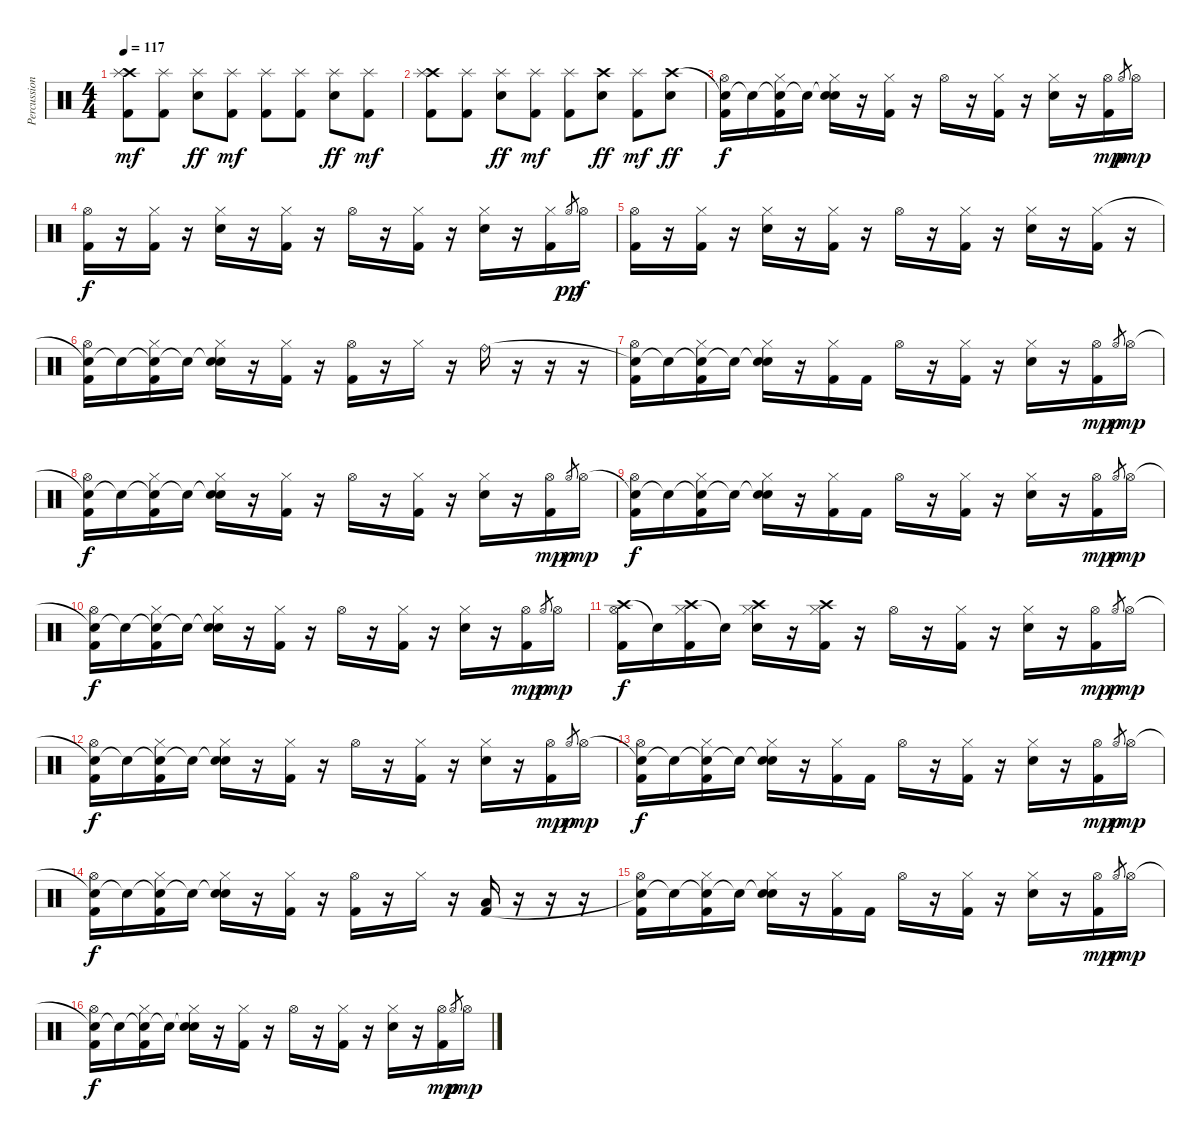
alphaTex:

\track ("Percussion" "Percussion") {instrument percussion}
\staff {score}
\articulation defaults
\ts (4 4)
\tempo 117
\clef neutral
\ks c
("Crash high (hit)" "Splash (hit)" "Kick (hit) 2").8{dy mf} ("Splash (hit)" "Kick (hit) 2").8 ("Splash (hit)" "Electric Snare (hit)").8{dy ff} ("Splash (hit)" "Kick (hit) 2").8{dy mf} ("Splash (hit)" "Kick (hit) 2").8 ("Splash (hit)" "Kick (hit) 2").8 ("Splash (hit)" "Electric Snare (hit)").8{dy ff} ("Splash (hit)" "Kick (hit) 2").8{dy mf} |
("Crash high (hit)" "Splash (hit)" "Kick (hit) 2").8 ("Splash (hit)" "Kick (hit) 2").8 ("Splash (hit)" "Electric Snare (hit)").8{dy ff} ("Splash (hit)" "Kick (hit) 2").8{dy mf} ("Splash (hit)" "Kick (hit) 2").8 ("Crash high (hit)" "Electric Snare (hit)").8{dy ff} ("Splash (hit)" "Kick (hit) 2").8{dy mf} ("Crash high (hit)" "Electric Snare (hit)").8{dy ff} |
("Snare (hit)"{t} "Hi-Hat (open)" "Kick (hit) 2").16{dy f} "Snare (hit)"{t}.16 ("Snare (hit)"{t} "Hi-Hat (closed)" "Kick (hit) 2").16 "Snare (hit)"{t}.16 ("Snare (hit)"{t} "Hi-Hat (closed)" "Electric Snare (hit)").16 r.16 ("Hi-Hat (closed)" "Kick (hit) 2").16 r.16 "Hi-Hat (open)".16 r.16 ("Hi-Hat (closed)" "Kick (hit) 2").16 r.16 ("Hi-Hat (closed)" "Electric Snare (hit)").16 r.16 ("Hi-Hat (open)" "Kick (hit) 2").16{dy mp} "Hi-Hat (open)".8{gr dy p} "Hi-Hat (open)".16{dy mp} |
("Hi-Hat (open)" "Kick (hit) 2").16{dy f} r.16 ("Hi-Hat (closed)" "Kick (hit) 2").16 r.16 ("Hi-Hat (closed)" "Electric Snare (hit)").16 r.16 ("Hi-Hat (closed)" "Kick (hit) 2").16 r.16 "Hi-Hat (open)".16 r.16 ("Hi-Hat (closed)" "Kick (hit) 2").16 r.16 ("Hi-Hat (closed)" "Electric Snare (hit)").16 r.16 ("Hi-Hat (closed)" "Kick (hit) 2").16 "Hi-Hat (open)".8{gr dy pp} "Hi-Hat (open)".16{dy f} |
("Hi-Hat (open)" "Kick (hit) 2").16 r.16 ("Hi-Hat (closed)" "Kick (hit) 2").16 r.16 ("Hi-Hat (closed)" "Electric Snare (hit)").16 r.16 ("Hi-Hat (closed)" "Kick (hit) 2").16 r.16 "Hi-Hat (open)".16 r.16 ("Hi-Hat (closed)" "Kick (hit) 2").16 r.16 ("Hi-Hat (closed)" "Electric Snare (hit)").16 r.16 ("Hi-Hat (closed)" "Kick (hit) 2").16 r.16 |
("Snare (hit)"{t} "Hi-Hat (open)" "Kick (hit) 2").16 "Snare (hit)"{t}.16 ("Snare (hit)"{t} "Hi-Hat (closed)" "Kick (hit) 2").16 "Snare (hit)"{t}.16 ("Snare (hit)"{t} "Hi-Hat (closed)" "Electric Snare (hit)").16 r.16 ("Hi-Hat (closed)" "Kick (hit) 2").16 r.16 ("Hi-Hat (open)" "Kick (hit) 2").16 r.16 "Hi-Hat (closed)".16 r.16 "Ride (bell)".16 r.16 r.16 r.16 |
("Snare (hit)"{t} "Hi-Hat (open)" "Kick (hit) 2").16 "Snare (hit)"{t}.16 ("Snare (hit)"{t} "Hi-Hat (closed)" "Kick (hit) 2").16 "Snare (hit)"{t}.16 ("Snare (hit)"{t} "Hi-Hat (closed)" "Electric Snare (hit)").16 r.16 ("Hi-Hat (closed)" "Kick (hit) 2").16 "Kick (hit) 2".16 "Hi-Hat (open)".16 r.16 ("Hi-Hat (closed)" "Kick (hit) 2").16 r.16 ("Hi-Hat (closed)" "Electric Snare (hit)").16 r.16 ("Hi-Hat (open)" "Kick (hit) 2").16{dy mp} "Hi-Hat (open)".8{gr dy p} "Hi-Hat (open)".16{dy mp} |
("Snare (hit)"{t} "Hi-Hat (open)" "Kick (hit) 2").16{dy f} "Snare (hit)"{t}.16 ("Snare (hit)"{t} "Hi-Hat (closed)" "Kick (hit) 2").16 "Snare (hit)"{t}.16 ("Snare (hit)"{t} "Hi-Hat (closed)" "Electric Snare (hit)").16 r.16 ("Hi-Hat (closed)" "Kick (hit) 2").16 r.16 "Hi-Hat (open)".16 r.16 ("Hi-Hat (closed)" "Kick (hit) 2").16 r.16 ("Hi-Hat (closed)" "Electric Snare (hit)").16 r.16 ("Hi-Hat (open)" "Kick (hit) 2").16{dy mp} "Hi-Hat (open)".8{gr dy p} "Hi-Hat (open)".16{dy mp} |
("Snare (hit)"{t} "Hi-Hat (open)" "Kick (hit) 2").16{dy f} "Snare (hit)"{t}.16 ("Snare (hit)"{t} "Hi-Hat (closed)" "Kick (hit) 2").16 "Snare (hit)"{t}.16 ("Snare (hit)"{t} "Hi-Hat (closed)" "Electric Snare (hit)").16 r.16 ("Hi-Hat (closed)" "Kick (hit) 2").16 "Kick (hit) 2".16 "Hi-Hat (open)".16 r.16 ("Hi-Hat (closed)" "Kick (hit) 2").16 r.16 ("Hi-Hat (closed)" "Electric Snare (hit)").16 r.16 ("Hi-Hat (open)" "Kick (hit) 2").16{dy mp} "Hi-Hat (open)".8{gr dy p} "Hi-Hat (open)".16{dy mp} |
("Snare (hit)"{t} "Hi-Hat (open)" "Kick (hit) 2").16{dy f} "Snare (hit)"{t}.16 ("Snare (hit)"{t} "Hi-Hat (closed)" "Kick (hit) 2").16 "Snare (hit)"{t}.16 ("Snare (hit)"{t} "Hi-Hat (closed)" "Electric Snare (hit)").16 r.16 ("Hi-Hat (closed)" "Kick (hit) 2").16 r.16 "Hi-Hat (open)".16 r.16 ("Hi-Hat (closed)" "Kick (hit) 2").16 r.16 ("Hi-Hat (closed)" "Electric Snare (hit)").16 r.16 ("Hi-Hat (open)" "Kick (hit) 2").16{dy mp} "Hi-Hat (open)".8{gr dy p} "Hi-Hat (open)".16{dy mp} |
("Crash high (hit)" "Hi-Hat (open)" "Kick (hit) 2").16{dy f} "Snare (hit)"{t}.16 ("Crash high (hit)" "Hi-Hat (closed)" "Kick (hit) 2").16 "Snare (hit)"{t}.16 ("Crash high (hit)" "Hi-Hat (closed)" "Electric Snare (hit)").16 r.16 ("Crash high (hit)" "Hi-Hat (closed)" "Kick (hit) 2").16 r.16 "Hi-Hat (open)".16 r.16 ("Hi-Hat (closed)" "Kick (hit) 2").16 r.16 ("Hi-Hat (closed)" "Electric Snare (hit)").16 r.16 ("Hi-Hat (open)" "Kick (hit) 2").16{dy mp} "Hi-Hat (open)".8{gr dy p} "Hi-Hat (open)".16{dy mp} |
("Snare (hit)"{t} "Hi-Hat (open)" "Kick (hit) 2").16{dy f} "Snare (hit)"{t}.16 ("Snare (hit)"{t} "Hi-Hat (closed)" "Kick (hit) 2").16 "Snare (hit)"{t}.16 ("Snare (hit)"{t} "Hi-Hat (closed)" "Electric Snare (hit)").16 r.16 ("Hi-Hat (closed)" "Kick (hit) 2").16 r.16 "Hi-Hat (open)".16 r.16 ("Hi-Hat (closed)" "Kick (hit) 2").16 r.16 ("Hi-Hat (closed)" "Electric Snare (hit)").16 r.16 ("Hi-Hat (open)" "Kick (hit) 2").16{dy mp} "Hi-Hat (open)".8{gr dy p} "Hi-Hat (open)".16{dy mp} |
("Snare (hit)"{t} "Hi-Hat (open)" "Kick (hit) 2").16{dy f} "Snare (hit)"{t}.16 ("Snare (hit)"{t} "Hi-Hat (closed)" "Kick (hit) 2").16 "Snare (hit)"{t}.16 ("Snare (hit)"{t} "Hi-Hat (closed)" "Electric Snare (hit)").16 r.16 ("Hi-Hat (closed)" "Kick (hit) 2").16 "Kick (hit) 2".16 "Hi-Hat (open)".16 r.16 ("Hi-Hat (closed)" "Kick (hit) 2").16 r.16 ("Hi-Hat (closed)" "Electric Snare (hit)").16 r.16 ("Hi-Hat (open)" "Kick (hit) 2").16{dy mp} "Hi-Hat (open)".8{gr dy p} "Hi-Hat (open)".16{dy mp} |
("Snare (hit)"{t} "Hi-Hat (open)" "Kick (hit) 2").16{dy f} "Snare (hit)"{t}.16 ("Snare (hit)"{t} "Hi-Hat (closed)" "Kick (hit) 2").16 "Snare (hit)"{t}.16 ("Snare (hit)"{t} "Hi-Hat (closed)" "Electric Snare (hit)").16 r.16 ("Hi-Hat (closed)" "Kick (hit) 2").16 r.16 ("Hi-Hat (open)" "Kick (hit) 2").16 r.16 "Hi-Hat (closed)".16 r.16 ("Kick (hit) 2" "Low Floor Tom (hit)").16 r.16 r.16 r.16 |
("Snare (hit)"{t} "Hi-Hat (open)" "Kick (hit) 2").16 "Snare (hit)"{t}.16 ("Snare (hit)"{t} "Hi-Hat (closed)" "Kick (hit) 2").16 "Snare (hit)"{t}.16 ("Snare (hit)"{t} "Hi-Hat (closed)" "Electric Snare (hit)").16 r.16 ("Hi-Hat (closed)" "Kick (hit) 2").16 "Kick (hit) 2".16 "Hi-Hat (open)".16 r.16 ("Hi-Hat (closed)" "Kick (hit) 2").16 r.16 ("Hi-Hat (closed)" "Electric Snare (hit)").16 r.16 ("Hi-Hat (open)" "Kick (hit) 2").16{dy mp} "Hi-Hat (open)".8{gr dy p} "Hi-Hat (open)".16{dy mp} |
("Snare (hit)"{t} "Hi-Hat (open)" "Kick (hit) 2").16{dy f} "Snare (hit)"{t}.16 ("Snare (hit)"{t} "Hi-Hat (closed)" "Kick (hit) 2").16 "Snare (hit)"{t}.16 ("Snare (hit)"{t} "Hi-Hat (closed)" "Electric Snare (hit)").16 r.16 ("Hi-Hat (closed)" "Kick (hit) 2").16 r.16 "Hi-Hat (open)".16 r.16 ("Hi-Hat (closed)" "Kick (hit) 2").16 r.16 ("Hi-Hat (closed)" "Electric Snare (hit)").16 r.16 ("Hi-Hat (open)" "Kick (hit) 2").16{dy mp} "Hi-Hat (open)".8{gr dy p} "Hi-Hat (open)".16{dy mp}
